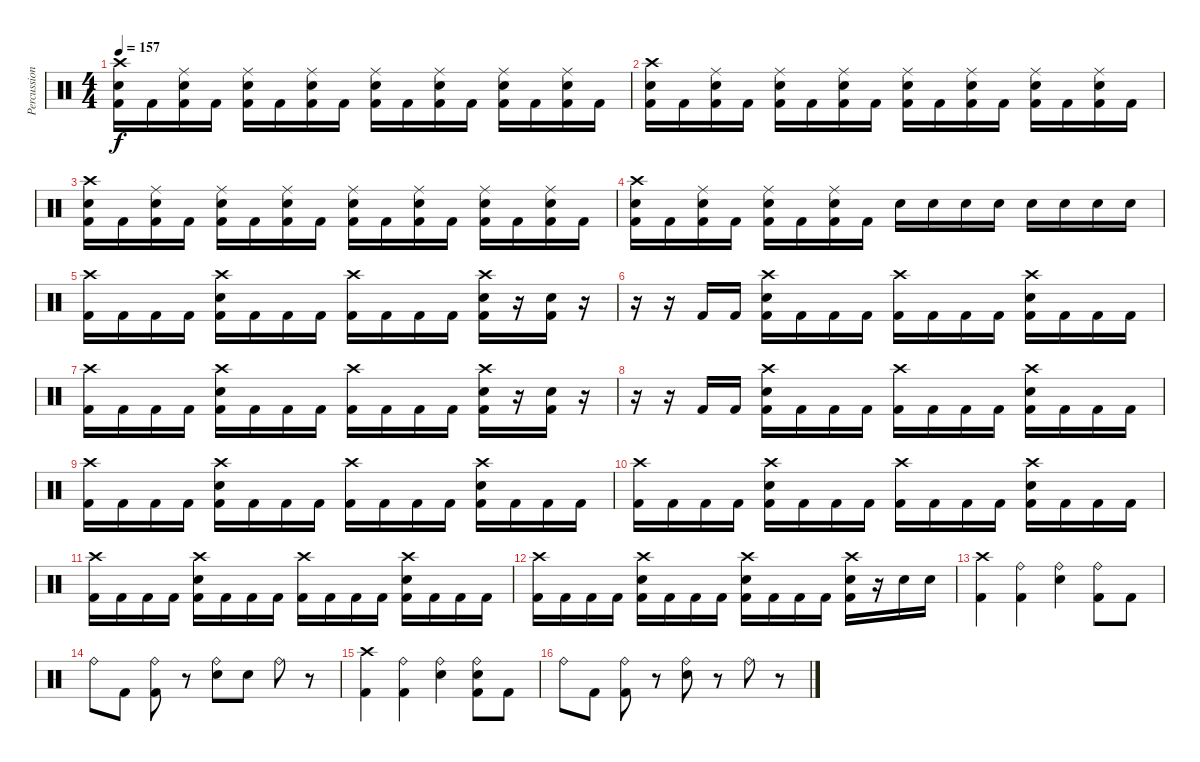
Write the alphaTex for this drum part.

\track ("Percussion" "Percussion") {instrument percussion}
\staff {score}
\articulation defaults
\ts (4 4)
\tempo 157
\clef neutral
\ks c
("Crash high (hit)" "Electric Snare (hit)" "Kick (hit) 2").16{dy f} "Kick (hit) 2".16 ("Ride (middle)" "Electric Snare (hit)" "Kick (hit) 2").16 "Kick (hit) 2".16 ("Ride (middle)" "Electric Snare (hit)" "Kick (hit) 2").16 "Kick (hit) 2".16 ("Ride (middle)" "Electric Snare (hit)" "Kick (hit) 2").16 "Kick (hit) 2".16 ("Ride (middle)" "Electric Snare (hit)" "Kick (hit) 2").16 "Kick (hit) 2".16 ("Ride (middle)" "Electric Snare (hit)" "Kick (hit) 2").16 "Kick (hit) 2".16 ("Ride (middle)" "Electric Snare (hit)" "Kick (hit) 2").16 "Kick (hit) 2".16 ("Ride (middle)" "Electric Snare (hit)" "Kick (hit) 2").16 "Kick (hit) 2".16 |
("Crash high (hit)" "Electric Snare (hit)" "Kick (hit) 2").16 "Kick (hit) 2".16 ("Ride (middle)" "Electric Snare (hit)" "Kick (hit) 2").16 "Kick (hit) 2".16 ("Ride (middle)" "Electric Snare (hit)" "Kick (hit) 2").16 "Kick (hit) 2".16 ("Ride (middle)" "Electric Snare (hit)" "Kick (hit) 2").16 "Kick (hit) 2".16 ("Ride (middle)" "Electric Snare (hit)" "Kick (hit) 2").16 "Kick (hit) 2".16 ("Ride (middle)" "Electric Snare (hit)" "Kick (hit) 2").16 "Kick (hit) 2".16 ("Ride (middle)" "Electric Snare (hit)" "Kick (hit) 2").16 "Kick (hit) 2".16 ("Ride (middle)" "Electric Snare (hit)" "Kick (hit) 2").16 "Kick (hit) 2".16 |
("Crash high (hit)" "Electric Snare (hit)" "Kick (hit) 2").16 "Kick (hit) 2".16 ("Ride (middle)" "Electric Snare (hit)" "Kick (hit) 2").16 "Kick (hit) 2".16 ("Ride (middle)" "Electric Snare (hit)" "Kick (hit) 2").16 "Kick (hit) 2".16 ("Ride (middle)" "Electric Snare (hit)" "Kick (hit) 2").16 "Kick (hit) 2".16 ("Ride (middle)" "Electric Snare (hit)" "Kick (hit) 2").16 "Kick (hit) 2".16 ("Ride (middle)" "Electric Snare (hit)" "Kick (hit) 2").16 "Kick (hit) 2".16 ("Ride (middle)" "Electric Snare (hit)" "Kick (hit) 2").16 "Kick (hit) 2".16 ("Ride (middle)" "Electric Snare (hit)" "Kick (hit) 2").16 "Kick (hit) 2".16 |
("Crash high (hit)" "Electric Snare (hit)" "Kick (hit) 2").16 "Kick (hit) 2".16 ("Ride (middle)" "Electric Snare (hit)" "Kick (hit) 2").16 "Kick (hit) 2".16 ("Ride (middle)" "Electric Snare (hit)" "Kick (hit) 2").16 "Kick (hit) 2".16 ("Ride (middle)" "Electric Snare (hit)" "Kick (hit) 2").16 "Kick (hit) 2".16 "Electric Snare (hit)".16 "Electric Snare (hit)".16 "Electric Snare (hit)".16 "Electric Snare (hit)".16 "Electric Snare (hit)".16 "Electric Snare (hit)".16 "Electric Snare (hit)".16 "Electric Snare (hit)".16 |
("Crash high (hit)" "Kick (hit) 2").16 "Kick (hit) 2".16 "Kick (hit) 2".16 "Kick (hit) 2".16 ("Crash high (hit)" "Electric Snare (hit)" "Kick (hit) 2").16 "Kick (hit) 2".16 "Kick (hit) 2".16 "Kick (hit) 2".16 ("Crash high (hit)" "Kick (hit) 2").16 "Kick (hit) 2".16 "Kick (hit) 2".16 "Kick (hit) 2".16 ("Crash high (hit)" "Electric Snare (hit)" "Kick (hit) 2").16 r.16 ("Electric Snare (hit)" "Kick (hit) 2").16 r.16 |
r.16 r.16 "Kick (hit) 2".16 "Kick (hit) 2".16 ("Crash high (hit)" "Electric Snare (hit)" "Kick (hit) 2").16 "Kick (hit) 2".16 "Kick (hit) 2".16 "Kick (hit) 2".16 ("Crash high (hit)" "Kick (hit) 2").16 "Kick (hit) 2".16 "Kick (hit) 2".16 "Kick (hit) 2".16 ("Crash high (hit)" "Electric Snare (hit)" "Kick (hit) 2").16 "Kick (hit) 2".16 "Kick (hit) 2".16 "Kick (hit) 2".16 |
("Crash high (hit)" "Kick (hit) 2").16 "Kick (hit) 2".16 "Kick (hit) 2".16 "Kick (hit) 2".16 ("Crash high (hit)" "Electric Snare (hit)" "Kick (hit) 2").16 "Kick (hit) 2".16 "Kick (hit) 2".16 "Kick (hit) 2".16 ("Crash high (hit)" "Kick (hit) 2").16 "Kick (hit) 2".16 "Kick (hit) 2".16 "Kick (hit) 2".16 ("Crash high (hit)" "Electric Snare (hit)" "Kick (hit) 2").16 r.16 ("Electric Snare (hit)" "Kick (hit) 2").16 r.16 |
r.16 r.16 "Kick (hit) 2".16 "Kick (hit) 2".16 ("Crash high (hit)" "Electric Snare (hit)" "Kick (hit) 2").16 "Kick (hit) 2".16 "Kick (hit) 2".16 "Kick (hit) 2".16 ("Crash high (hit)" "Kick (hit) 2").16 "Kick (hit) 2".16 "Kick (hit) 2".16 "Kick (hit) 2".16 ("Crash high (hit)" "Electric Snare (hit)" "Kick (hit) 2").16 "Kick (hit) 2".16 "Kick (hit) 2".16 "Kick (hit) 2".16 |
("Crash high (hit)" "Kick (hit) 2").16 "Kick (hit) 2".16 "Kick (hit) 2".16 "Kick (hit) 2".16 ("Crash high (hit)" "Electric Snare (hit)" "Kick (hit) 2").16 "Kick (hit) 2".16 "Kick (hit) 2".16 "Kick (hit) 2".16 ("Crash high (hit)" "Kick (hit) 2").16 "Kick (hit) 2".16 "Kick (hit) 2".16 "Kick (hit) 2".16 ("Crash high (hit)" "Electric Snare (hit)" "Kick (hit) 2").16 "Kick (hit) 2".16 "Kick (hit) 2".16 "Kick (hit) 2".16 |
("Crash high (hit)" "Kick (hit) 2").16 "Kick (hit) 2".16 "Kick (hit) 2".16 "Kick (hit) 2".16 ("Crash high (hit)" "Electric Snare (hit)" "Kick (hit) 2").16 "Kick (hit) 2".16 "Kick (hit) 2".16 "Kick (hit) 2".16 ("Crash high (hit)" "Kick (hit) 2").16 "Kick (hit) 2".16 "Kick (hit) 2".16 "Kick (hit) 2".16 ("Crash high (hit)" "Electric Snare (hit)" "Kick (hit) 2").16 "Kick (hit) 2".16 "Kick (hit) 2".16 "Kick (hit) 2".16 |
("Crash high (hit)" "Kick (hit) 2").16 "Kick (hit) 2".16 "Kick (hit) 2".16 "Kick (hit) 2".16 ("Crash high (hit)" "Electric Snare (hit)" "Kick (hit) 2").16 "Kick (hit) 2".16 "Kick (hit) 2".16 "Kick (hit) 2".16 ("Crash high (hit)" "Kick (hit) 2").16 "Kick (hit) 2".16 "Kick (hit) 2".16 "Kick (hit) 2".16 ("Crash high (hit)" "Electric Snare (hit)" "Kick (hit) 2").16 "Kick (hit) 2".16 "Kick (hit) 2".16 "Kick (hit) 2".16 |
("Crash high (hit)" "Kick (hit) 2").16 "Kick (hit) 2".16 "Kick (hit) 2".16 "Kick (hit) 2".16 ("Crash high (hit)" "Electric Snare (hit)" "Kick (hit) 2").16 "Kick (hit) 2".16 "Kick (hit) 2".16 "Kick (hit) 2".16 ("Crash high (hit)" "Electric Snare (hit)" "Kick (hit) 2").16 "Kick (hit) 2".16 "Kick (hit) 2".16 "Kick (hit) 2".16 ("Crash high (hit)" "Electric Snare (hit)" "Kick (hit) 2").16 r.16 "Electric Snare (hit)".16 "Electric Snare (hit)".16 |
("Crash high (hit)" "Kick (hit) 2").4 ("Ride (bell)" "Kick (hit) 2").4 ("Ride (bell)" "Electric Snare (hit)").4 ("Ride (bell)" "Kick (hit) 2").8 "Kick (hit) 2".8 |
"Ride (bell)".8 "Kick (hit) 2".8 ("Ride (bell)" "Kick (hit) 2").8 r.8 ("Ride (bell)" "Electric Snare (hit)").8 "Electric Snare (hit)".8 "Ride (bell)".8 r.8 |
("Crash high (hit)" "Kick (hit) 2").4 ("Ride (bell)" "Kick (hit) 2").4 ("Ride (bell)" "Electric Snare (hit)").4 ("Ride (bell)" "Electric Snare (hit)" "Kick (hit) 2").8 "Kick (hit) 2".8 |
"Ride (bell)".8 "Kick (hit) 2".8 ("Ride (bell)" "Kick (hit) 2").8 r.8 ("Ride (bell)" "Electric Snare (hit)").8 r.8 "Ride (bell)".8 r.8
